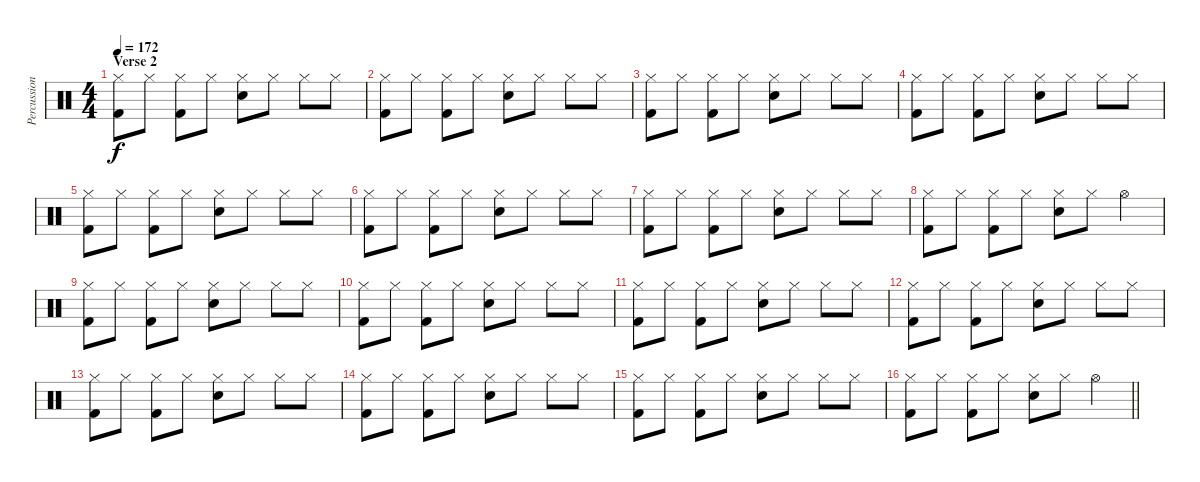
\track ("Percussion" "Percussion") {instrument percussion}
\staff {score}
\articulation defaults
\ts (4 4)
\section ("" "Verse 2")
\tempo 172
\clef neutral
\ks c
("Hi-Hat (closed)" "Kick (hit) 2").8{dy f} "Hi-Hat (closed)".8 ("Hi-Hat (closed)" "Kick (hit) 2").8 "Hi-Hat (closed)".8 ("Hi-Hat (closed)" "Electric Snare (hit)").8 "Hi-Hat (closed)".8 "Hi-Hat (closed)".8 "Hi-Hat (closed)".8 |
("Hi-Hat (closed)" "Kick (hit) 2").8 "Hi-Hat (closed)".8 ("Hi-Hat (closed)" "Kick (hit) 2").8 "Hi-Hat (closed)".8 ("Hi-Hat (closed)" "Electric Snare (hit)").8 "Hi-Hat (closed)".8 "Hi-Hat (closed)".8 "Hi-Hat (closed)".8 |
("Hi-Hat (closed)" "Kick (hit) 2").8 "Hi-Hat (closed)".8 ("Hi-Hat (closed)" "Kick (hit) 2").8 "Hi-Hat (closed)".8 ("Hi-Hat (closed)" "Electric Snare (hit)").8 "Hi-Hat (closed)".8 "Hi-Hat (closed)".8 "Hi-Hat (closed)".8 |
("Hi-Hat (closed)" "Kick (hit) 2").8 "Hi-Hat (closed)".8 ("Hi-Hat (closed)" "Kick (hit) 2").8 "Hi-Hat (closed)".8 ("Hi-Hat (closed)" "Electric Snare (hit)").8 "Hi-Hat (closed)".8 "Hi-Hat (closed)".8 "Hi-Hat (closed)".8 |
("Hi-Hat (closed)" "Kick (hit) 2").8 "Hi-Hat (closed)".8 ("Hi-Hat (closed)" "Kick (hit) 2").8 "Hi-Hat (closed)".8 ("Hi-Hat (closed)" "Electric Snare (hit)").8 "Hi-Hat (closed)".8 "Hi-Hat (closed)".8 "Hi-Hat (closed)".8 |
("Hi-Hat (closed)" "Kick (hit) 2").8 "Hi-Hat (closed)".8 ("Hi-Hat (closed)" "Kick (hit) 2").8 "Hi-Hat (closed)".8 ("Hi-Hat (closed)" "Electric Snare (hit)").8 "Hi-Hat (closed)".8 "Hi-Hat (closed)".8 "Hi-Hat (closed)".8 |
("Hi-Hat (closed)" "Kick (hit) 2").8 "Hi-Hat (closed)".8 ("Hi-Hat (closed)" "Kick (hit) 2").8 "Hi-Hat (closed)".8 ("Hi-Hat (closed)" "Electric Snare (hit)").8 "Hi-Hat (closed)".8 "Hi-Hat (closed)".8 "Hi-Hat (closed)".8 |
("Hi-Hat (closed)" "Kick (hit) 2").8 "Hi-Hat (closed)".8 ("Hi-Hat (closed)" "Kick (hit) 2").8 "Hi-Hat (closed)".8 ("Hi-Hat (closed)" "Electric Snare (hit)").8 "Hi-Hat (closed)".8 "Hi-Hat (open)".4 |
("Hi-Hat (closed)" "Kick (hit) 2").8 "Hi-Hat (closed)".8 ("Hi-Hat (closed)" "Kick (hit) 2").8 "Hi-Hat (closed)".8 ("Hi-Hat (closed)" "Electric Snare (hit)").8 "Hi-Hat (closed)".8 "Hi-Hat (closed)".8 "Hi-Hat (closed)".8 |
("Hi-Hat (closed)" "Kick (hit) 2").8 "Hi-Hat (closed)".8 ("Hi-Hat (closed)" "Kick (hit) 2").8 "Hi-Hat (closed)".8 ("Hi-Hat (closed)" "Electric Snare (hit)").8 "Hi-Hat (closed)".8 "Hi-Hat (closed)".8 "Hi-Hat (closed)".8 |
("Hi-Hat (closed)" "Kick (hit) 2").8 "Hi-Hat (closed)".8 ("Hi-Hat (closed)" "Kick (hit) 2").8 "Hi-Hat (closed)".8 ("Hi-Hat (closed)" "Electric Snare (hit)").8 "Hi-Hat (closed)".8 "Hi-Hat (closed)".8 "Hi-Hat (closed)".8 |
("Hi-Hat (closed)" "Kick (hit) 2").8 "Hi-Hat (closed)".8 ("Hi-Hat (closed)" "Kick (hit) 2").8 "Hi-Hat (closed)".8 ("Hi-Hat (closed)" "Electric Snare (hit)").8 "Hi-Hat (closed)".8 "Hi-Hat (closed)".8 "Hi-Hat (closed)".8 |
("Hi-Hat (closed)" "Kick (hit) 2").8 "Hi-Hat (closed)".8 ("Hi-Hat (closed)" "Kick (hit) 2").8 "Hi-Hat (closed)".8 ("Hi-Hat (closed)" "Electric Snare (hit)").8 "Hi-Hat (closed)".8 "Hi-Hat (closed)".8 "Hi-Hat (closed)".8 |
("Hi-Hat (closed)" "Kick (hit) 2").8 "Hi-Hat (closed)".8 ("Hi-Hat (closed)" "Kick (hit) 2").8 "Hi-Hat (closed)".8 ("Hi-Hat (closed)" "Electric Snare (hit)").8 "Hi-Hat (closed)".8 "Hi-Hat (closed)".8 "Hi-Hat (closed)".8 |
("Hi-Hat (closed)" "Kick (hit) 2").8 "Hi-Hat (closed)".8 ("Hi-Hat (closed)" "Kick (hit) 2").8 "Hi-Hat (closed)".8 ("Hi-Hat (closed)" "Electric Snare (hit)").8 "Hi-Hat (closed)".8 "Hi-Hat (closed)".8 "Hi-Hat (closed)".8 |
\barLineRight lightlight
("Hi-Hat (closed)" "Kick (hit) 2").8 "Hi-Hat (closed)".8 ("Hi-Hat (closed)" "Kick (hit) 2").8 "Hi-Hat (closed)".8 ("Hi-Hat (closed)" "Electric Snare (hit)").8 "Hi-Hat (closed)".8 "Hi-Hat (open)".4
